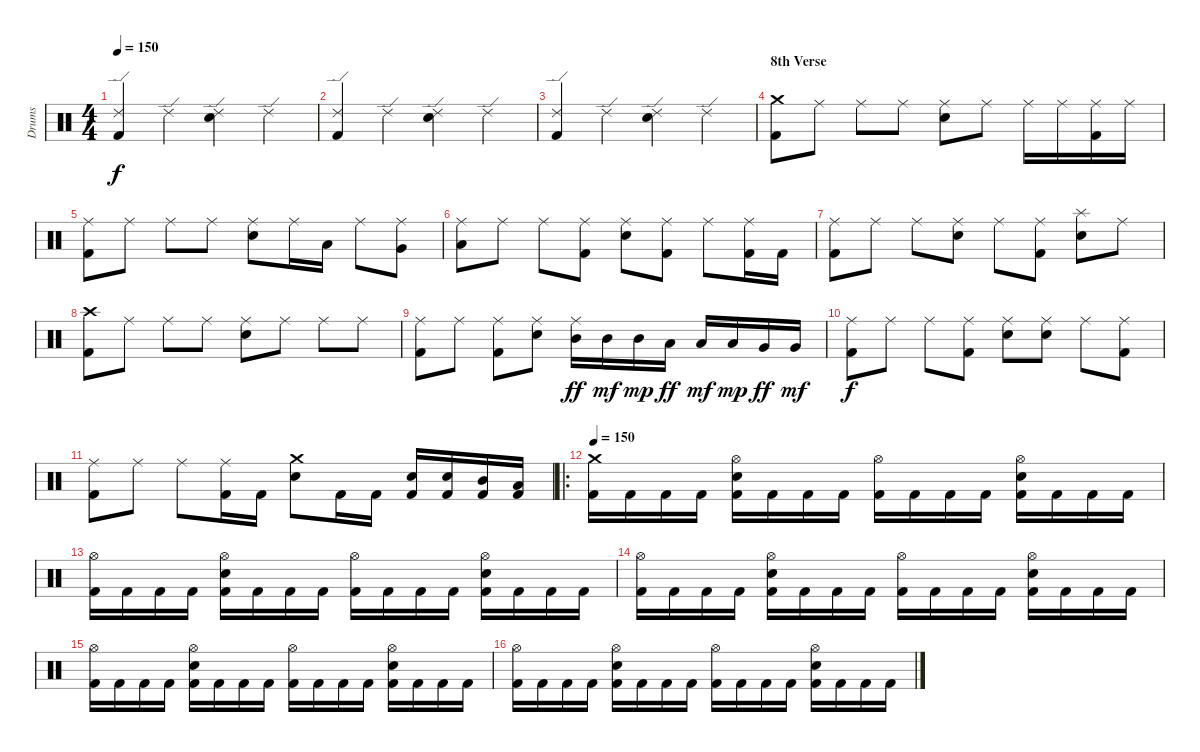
\track ("Drums" "Drums") {instrument percussion}
\staff {score}
\articulation defaults
\ts (4 4)
\tempo 150
\clef neutral
\ks c
("Kick (hit) 2" "Ride (edge) 2").4{dy f} "Ride (edge) 2".4 ("Electric Snare (hit)" "Ride (edge) 2").4 "Ride (edge) 2".4 |
("Kick (hit) 2" "Ride (edge) 2").4 "Ride (edge) 2".4 ("Electric Snare (hit)" "Ride (edge) 2").4 "Ride (edge) 2".4 |
("Kick (hit) 2" "Ride (edge) 2").4 "Ride (edge) 2".4 ("Electric Snare (hit)" "Ride (edge) 2").4 "Ride (edge) 2".4 |
\section ("" "8th Verse")
("Kick (hit) 2" "Crash medium (hit)").8 "Ride (middle)".8 "Ride (middle)".8 "Ride (middle)".8 ("Electric Snare (hit)" "Ride (middle)").8 "Ride (middle)".8 "Ride (middle)".16 "Ride (middle)".16 ("Kick (hit) 2" "Ride (middle)").16 "Ride (middle)".16 |
("Kick (hit) 2" "Ride (middle)").8 "Ride (middle)".8 "Ride (middle)".8 "Ride (middle)".8 ("Electric Snare (hit)" "Ride (middle)").8 "Ride (middle)".16 "Low Tom (hit)".16 "Ride (middle)".8 ("Very Low Tom (hit)" "Ride (middle)").8 |
("Low Floor Tom (hit)" "Ride (middle)").8 "Ride (middle)".8 "Ride (middle)".8 ("Kick (hit) 2" "Ride (middle)").8 ("Electric Snare (hit)" "Ride (middle)").8 ("Kick (hit) 2" "Ride (middle)").8 "Ride (middle)".8 ("Kick (hit) 2" "Ride (middle)").16 "Kick (hit) 2".16 |
("Kick (hit) 2" "Ride (middle)").8 "Ride (middle)".8 "Ride (middle)".8 ("Electric Snare (hit)" "Ride (middle)").8 "Ride (middle)".8 ("Kick (hit) 2" "Ride (middle)").8 ("Electric Snare (hit)" "Splash (hit)").8 "Ride (middle)".8 |
("Kick (hit) 2" "Crash high (hit)").8 "Ride (middle)".8 "Ride (middle)".8 "Ride (middle)".8 ("Electric Snare (hit)" "Ride (middle)").8 "Ride (middle)".8 "Ride (middle)".8 "Ride (middle)".8 |
("Kick (hit) 2" "Ride (middle)").8 "Ride (middle)".8 ("Kick (hit) 2" "Ride (middle)").8 ("Electric Snare (hit)" "Ride (middle)").8 ("Mid Tom (hit)" "Ride (middle)").16{dy ff} "Mid Tom (hit)".16{dy mf} "Mid Tom (hit)".16{dy mp} "Low Tom (hit)".16{dy ff} "Low Tom (hit)".16{dy mf} "Low Tom (hit)".16{dy mp} "Very Low Tom (hit)".16{dy ff} "Very Low Tom (hit)".16{dy mf} |
("Kick (hit) 2" "Ride (middle)").8{dy f} "Ride (middle)".8 "Ride (middle)".8 ("Kick (hit) 2" "Ride (middle)").8 ("Electric Snare (hit)" "Ride (middle)").8 ("Electric Snare (hit)" "Ride (middle)").8 "Ride (middle)".8 ("Kick (hit) 2" "Ride (middle)").8 |
("Kick (hit) 2" "Ride (middle)").8 "Ride (middle)".8 "Ride (middle)".8 ("Kick (hit) 2" "Ride (middle)").16 "Kick (hit) 2".16 ("Electric Snare (hit)" "Crash medium (hit)").8 "Kick (hit) 2".16 "Kick (hit) 2".16 ("Kick (hit) 2" "Electric Snare (hit)").16 ("Kick (hit) 2" "Electric Snare (hit)").16 ("Kick (hit) 2" "Mid Tom (hit)").16 ("Kick (hit) 2" "Low Tom (hit)").16 |
\ro
\tempo 150
("Kick (hit) 2" "Crash medium (hit)").16 "Kick (hit) 2".16 "Kick (hit) 2".16 "Kick (hit) 2".16 ("Kick (hit) 2" "Electric Snare (hit)" "Hi-Hat (open)").16 "Kick (hit) 2".16 "Kick (hit) 2".16 "Kick (hit) 2".16 ("Kick (hit) 2" "Hi-Hat (open)").16 "Kick (hit) 2".16 "Kick (hit) 2".16 "Kick (hit) 2".16 ("Kick (hit) 2" "Electric Snare (hit)" "Hi-Hat (open)").16 "Kick (hit) 2".16 "Kick (hit) 2".16 "Kick (hit) 2".16 |
("Kick (hit) 2" "Hi-Hat (open)").16 "Kick (hit) 2".16 "Kick (hit) 2".16 "Kick (hit) 2".16 ("Kick (hit) 2" "Electric Snare (hit)" "Hi-Hat (open)").16 "Kick (hit) 2".16 "Kick (hit) 2".16 "Kick (hit) 2".16 ("Kick (hit) 2" "Hi-Hat (open)").16 "Kick (hit) 2".16 "Kick (hit) 2".16 "Kick (hit) 2".16 ("Kick (hit) 2" "Electric Snare (hit)" "Hi-Hat (open)").16 "Kick (hit) 2".16 "Kick (hit) 2".16 "Kick (hit) 2".16 |
("Kick (hit) 2" "Hi-Hat (open)").16 "Kick (hit) 2".16 "Kick (hit) 2".16 "Kick (hit) 2".16 ("Kick (hit) 2" "Electric Snare (hit)" "Hi-Hat (open)").16 "Kick (hit) 2".16 "Kick (hit) 2".16 "Kick (hit) 2".16 ("Kick (hit) 2" "Hi-Hat (open)").16 "Kick (hit) 2".16 "Kick (hit) 2".16 "Kick (hit) 2".16 ("Kick (hit) 2" "Electric Snare (hit)" "Hi-Hat (open)").16 "Kick (hit) 2".16 "Kick (hit) 2".16 "Kick (hit) 2".16 |
("Kick (hit) 2" "Hi-Hat (open)").16 "Kick (hit) 2".16 "Kick (hit) 2".16 "Kick (hit) 2".16 ("Kick (hit) 2" "Electric Snare (hit)" "Hi-Hat (open)").16 "Kick (hit) 2".16 "Kick (hit) 2".16 "Kick (hit) 2".16 ("Kick (hit) 2" "Hi-Hat (open)").16 "Kick (hit) 2".16 "Kick (hit) 2".16 "Kick (hit) 2".16 ("Kick (hit) 2" "Electric Snare (hit)" "Hi-Hat (open)").16 "Kick (hit) 2".16 "Kick (hit) 2".16 "Kick (hit) 2".16 |
("Kick (hit) 2" "Hi-Hat (open)").16 "Kick (hit) 2".16 "Kick (hit) 2".16 "Kick (hit) 2".16 ("Kick (hit) 2" "Electric Snare (hit)" "Hi-Hat (open)").16 "Kick (hit) 2".16 "Kick (hit) 2".16 "Kick (hit) 2".16 ("Kick (hit) 2" "Hi-Hat (open)").16 "Kick (hit) 2".16 "Kick (hit) 2".16 "Kick (hit) 2".16 ("Kick (hit) 2" "Electric Snare (hit)" "Hi-Hat (open)").16 "Kick (hit) 2".16 "Kick (hit) 2".16 "Kick (hit) 2".16
